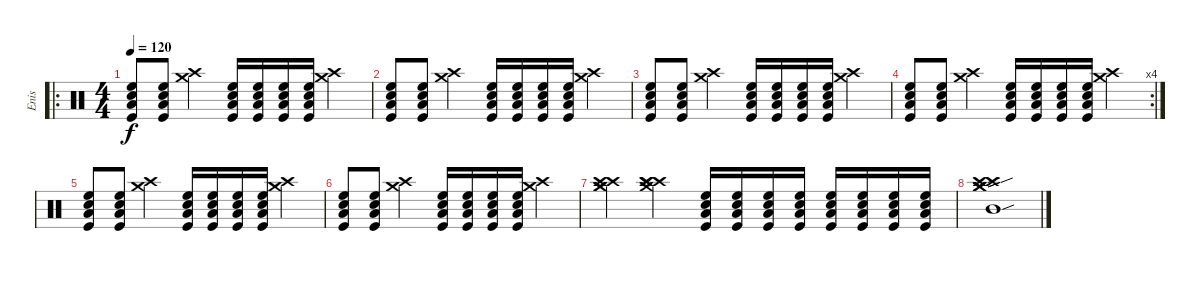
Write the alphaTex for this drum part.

\track ("Enis" "Enis") {instrument percussion}
\staff {score}
\articulation defaults
\ro
\ts (4 4)
\tempo 120
\clef neutral
\ks c
("High Floor Tom (hit)" "Snare (hit) 2" "Low Floor Tom (hit)" "Kick (hit)").8{dy f} ("High Floor Tom (hit)" "Snare (hit) 2" "Low Floor Tom (hit)" "Kick (hit)").8 ("Crash medium (hit)" "Crash high (hit)").4 ("High Floor Tom (hit)" "Snare (hit) 2" "Kick (hit)" "Low Floor Tom (hit)").16 ("High Floor Tom (hit)" "Snare (hit) 2" "Kick (hit)" "Low Floor Tom (hit)").16 ("High Floor Tom (hit)" "Snare (hit) 2" "Kick (hit)" "Low Floor Tom (hit)").16 ("High Floor Tom (hit)" "Snare (hit) 2" "Kick (hit)" "Low Floor Tom (hit)").16 ("Crash high (hit)" "Crash medium (hit)").4 |
("High Floor Tom (hit)" "Snare (hit) 2" "Low Floor Tom (hit)" "Kick (hit)").8 ("High Floor Tom (hit)" "Snare (hit) 2" "Low Floor Tom (hit)" "Kick (hit)").8 ("Crash medium (hit)" "Crash high (hit)").4 ("High Floor Tom (hit)" "Snare (hit) 2" "Kick (hit)" "Low Floor Tom (hit)").16 ("High Floor Tom (hit)" "Snare (hit) 2" "Kick (hit)" "Low Floor Tom (hit)").16 ("High Floor Tom (hit)" "Snare (hit) 2" "Kick (hit)" "Low Floor Tom (hit)").16 ("High Floor Tom (hit)" "Snare (hit) 2" "Kick (hit)" "Low Floor Tom (hit)").16 ("Crash high (hit)" "Crash medium (hit)").4 |
("High Floor Tom (hit)" "Snare (hit) 2" "Low Floor Tom (hit)" "Kick (hit)").8 ("High Floor Tom (hit)" "Snare (hit) 2" "Low Floor Tom (hit)" "Kick (hit)").8 ("Crash medium (hit)" "Crash high (hit)").4 ("High Floor Tom (hit)" "Snare (hit) 2" "Kick (hit)" "Low Floor Tom (hit)").16 ("High Floor Tom (hit)" "Snare (hit) 2" "Kick (hit)" "Low Floor Tom (hit)").16 ("High Floor Tom (hit)" "Snare (hit) 2" "Kick (hit)" "Low Floor Tom (hit)").16 ("High Floor Tom (hit)" "Snare (hit) 2" "Kick (hit)" "Low Floor Tom (hit)").16 ("Crash high (hit)" "Crash medium (hit)").4 |
\rc 4
("High Floor Tom (hit)" "Snare (hit) 2" "Low Floor Tom (hit)" "Kick (hit)").8 ("High Floor Tom (hit)" "Snare (hit) 2" "Low Floor Tom (hit)" "Kick (hit)").8 ("Crash medium (hit)" "Crash high (hit)").4 ("High Floor Tom (hit)" "Snare (hit) 2" "Kick (hit)" "Low Floor Tom (hit)").16 ("High Floor Tom (hit)" "Snare (hit) 2" "Kick (hit)" "Low Floor Tom (hit)").16 ("High Floor Tom (hit)" "Snare (hit) 2" "Kick (hit)" "Low Floor Tom (hit)").16 ("High Floor Tom (hit)" "Snare (hit) 2" "Kick (hit)" "Low Floor Tom (hit)").16 ("Crash high (hit)" "Crash medium (hit)").4 |
("High Floor Tom (hit)" "Snare (hit) 2" "Low Floor Tom (hit)" "Kick (hit)").8 ("High Floor Tom (hit)" "Snare (hit) 2" "Low Floor Tom (hit)" "Kick (hit)").8 ("Crash medium (hit)" "Crash high (hit)").4 ("High Floor Tom (hit)" "Snare (hit) 2" "Kick (hit)" "Low Floor Tom (hit)").16 ("High Floor Tom (hit)" "Snare (hit) 2" "Kick (hit)" "Low Floor Tom (hit)").16 ("High Floor Tom (hit)" "Snare (hit) 2" "Kick (hit)" "Low Floor Tom (hit)").16 ("High Floor Tom (hit)" "Snare (hit) 2" "Kick (hit)" "Low Floor Tom (hit)").16 ("Crash high (hit)" "Crash medium (hit)").4 |
("High Floor Tom (hit)" "Snare (hit) 2" "Low Floor Tom (hit)" "Kick (hit)").8 ("High Floor Tom (hit)" "Snare (hit) 2" "Low Floor Tom (hit)" "Kick (hit)").8 ("Crash medium (hit)" "Crash high (hit)").4 ("High Floor Tom (hit)" "Snare (hit) 2" "Kick (hit)" "Low Floor Tom (hit)").16 ("High Floor Tom (hit)" "Snare (hit) 2" "Kick (hit)" "Low Floor Tom (hit)").16 ("High Floor Tom (hit)" "Snare (hit) 2" "Kick (hit)" "Low Floor Tom (hit)").16 ("High Floor Tom (hit)" "Snare (hit) 2" "Kick (hit)" "Low Floor Tom (hit)").16 ("Crash high (hit)" "Crash medium (hit)").4 |
("Crash medium (hit)" "Crash medium (hit)" "Crash high (hit)" "Crash high (hit)").4 ("Crash high (hit)" "Crash high (hit)" "Crash medium (hit)" "Crash high (hit)").4 ("Kick (hit)" "Low Floor Tom (hit)" "Snare (hit) 2" "High Floor Tom (hit)").16 ("Kick (hit)" "Low Floor Tom (hit)" "Snare (hit) 2" "High Floor Tom (hit)").16 ("Kick (hit)" "Low Floor Tom (hit)" "Snare (hit) 2" "High Floor Tom (hit)").16 ("Kick (hit)" "Low Floor Tom (hit)" "Snare (hit) 2" "High Floor Tom (hit)").16 ("Kick (hit)" "Low Floor Tom (hit)" "Snare (hit) 2" "High Floor Tom (hit)").16 ("Kick (hit)" "Low Floor Tom (hit)" "Snare (hit) 2" "High Floor Tom (hit)").16 ("Low Floor Tom (hit)" "Kick (hit)" "Snare (hit) 2" "High Floor Tom (hit)").16 ("Low Floor Tom (hit)" "Kick (hit)" "Snare (hit) 2" "High Floor Tom (hit)").16 |
("Mid Tom (hit)"{sou} "Crash high (hit)"{sou} "Crash medium (hit)"{sou} "Crash high (hit)"{sou} "Crash medium (hit)"{sou}).1
